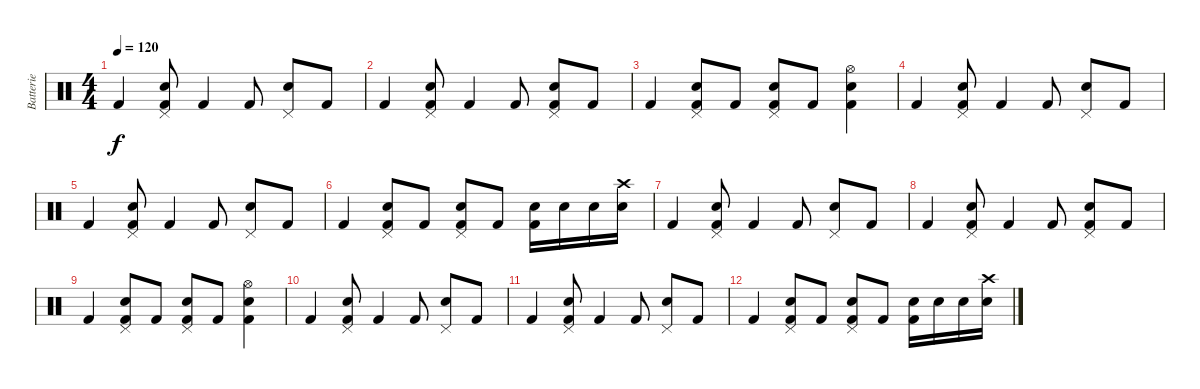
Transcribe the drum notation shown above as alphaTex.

\track ("Batterie" "Batterie") {instrument percussion}
\staff {score}
\articulation defaults
\ts (4 4)
\tempo 120
\clef neutral
\ks c "Kick (hit) 2".4{dy f}
("Snare (hit) 2" "Kick (hit) 2" "Pedal Hi-Hat (hit)").8 "Kick (hit) 2".4 "Kick (hit) 2".8 ("Snare (hit) 2" "Pedal Hi-Hat (hit)").8 "Kick (hit) 2".8 |
"Kick (hit) 2".4 ("Snare (hit) 2" "Kick (hit) 2" "Pedal Hi-Hat (hit)").8 "Kick (hit) 2".4 "Kick (hit) 2".8 ("Snare (hit) 2" "Kick (hit) 2" "Pedal Hi-Hat (hit)").8 "Kick (hit) 2".8 |
"Kick (hit) 2".4 ("Snare (hit) 2" "Kick (hit) 2" "Pedal Hi-Hat (hit)").8 "Kick (hit) 2".8 ("Snare (hit) 2" "Kick (hit) 2" "Pedal Hi-Hat (hit)").8 "Kick (hit) 2".8 ("Snare (hit) 2" "Kick (hit) 2" "Hi-Hat (open)").4 |
"Kick (hit) 2".4 ("Snare (hit) 2" "Kick (hit) 2" "Pedal Hi-Hat (hit)").8 "Kick (hit) 2".4 "Kick (hit) 2".8 ("Snare (hit) 2" "Pedal Hi-Hat (hit)").8 "Kick (hit) 2".8 |
"Kick (hit) 2".4 ("Snare (hit) 2" "Kick (hit) 2" "Pedal Hi-Hat (hit)").8 "Kick (hit) 2".4 "Kick (hit) 2".8 ("Snare (hit) 2" "Pedal Hi-Hat (hit)").8 "Kick (hit) 2".8 |
"Kick (hit) 2".4 ("Snare (hit) 2" "Kick (hit) 2" "Pedal Hi-Hat (hit)").8 "Kick (hit) 2".8 ("Snare (hit) 2" "Kick (hit) 2" "Pedal Hi-Hat (hit)").8 "Kick (hit) 2".8 ("Snare (hit) 2" "Kick (hit) 2").16 "Snare (hit) 2".16 "Snare (hit) 2".16 ("Snare (hit) 2" "Crash high (hit)").16 |
"Kick (hit) 2".4 ("Snare (hit) 2" "Kick (hit) 2" "Pedal Hi-Hat (hit)").8 "Kick (hit) 2".4 "Kick (hit) 2".8 ("Snare (hit) 2" "Pedal Hi-Hat (hit)").8 "Kick (hit) 2".8 |
"Kick (hit) 2".4 ("Snare (hit) 2" "Kick (hit) 2" "Pedal Hi-Hat (hit)").8 "Kick (hit) 2".4 "Kick (hit) 2".8 ("Snare (hit) 2" "Kick (hit) 2" "Pedal Hi-Hat (hit)").8 "Kick (hit) 2".8 |
"Kick (hit) 2".4 ("Snare (hit) 2" "Kick (hit) 2" "Pedal Hi-Hat (hit)").8 "Kick (hit) 2".8 ("Snare (hit) 2" "Kick (hit) 2" "Pedal Hi-Hat (hit)").8 "Kick (hit) 2".8 ("Snare (hit) 2" "Kick (hit) 2" "Hi-Hat (open)").4 |
"Kick (hit) 2".4 ("Snare (hit) 2" "Kick (hit) 2" "Pedal Hi-Hat (hit)").8 "Kick (hit) 2".4 "Kick (hit) 2".8 ("Snare (hit) 2" "Pedal Hi-Hat (hit)").8 "Kick (hit) 2".8 |
"Kick (hit) 2".4 ("Snare (hit) 2" "Kick (hit) 2" "Pedal Hi-Hat (hit)").8 "Kick (hit) 2".4 "Kick (hit) 2".8 ("Snare (hit) 2" "Pedal Hi-Hat (hit)").8 "Kick (hit) 2".8 |
"Kick (hit) 2".4 ("Snare (hit) 2" "Kick (hit) 2" "Pedal Hi-Hat (hit)").8 "Kick (hit) 2".8 ("Snare (hit) 2" "Kick (hit) 2" "Pedal Hi-Hat (hit)").8 "Kick (hit) 2".8 ("Snare (hit) 2" "Kick (hit) 2").16 "Snare (hit) 2".16 "Snare (hit) 2".16 ("Snare (hit) 2" "Crash high (hit)").16
